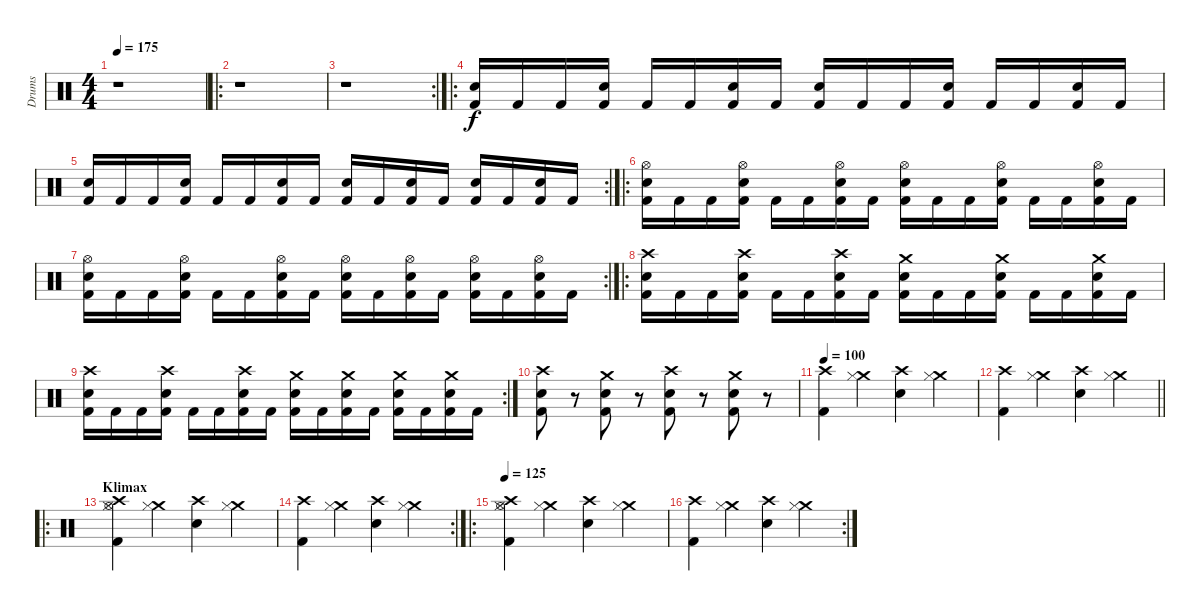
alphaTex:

\track ("Drums" "Drums") {instrument percussion}
\staff {score}
\articulation defaults
\ts (4 4)
\tempo 175
\clef neutral
\ks c
r.1{dy f} |
\ro
r.1 |
\rc 2
r.1 |
\ro
("Snare (hit) 2" "Kick (hit) 2").16 "Kick (hit) 2".16 "Kick (hit) 2".16 ("Snare (hit) 2" "Kick (hit) 2").16 "Kick (hit) 2".16 "Kick (hit) 2".16 ("Snare (hit) 2" "Kick (hit) 2").16 "Kick (hit) 2".16 ("Snare (hit) 2" "Kick (hit) 2").16 "Kick (hit) 2".16 "Kick (hit) 2".16 ("Snare (hit) 2" "Kick (hit) 2").16 "Kick (hit) 2".16 "Kick (hit) 2".16 ("Snare (hit) 2" "Kick (hit) 2").16 "Kick (hit) 2".16 |
\rc 2
("Snare (hit) 2" "Kick (hit) 2").16 "Kick (hit) 2".16 "Kick (hit) 2".16 ("Snare (hit) 2" "Kick (hit) 2").16 "Kick (hit) 2".16 "Kick (hit) 2".16 ("Snare (hit) 2" "Kick (hit) 2").16 "Kick (hit) 2".16 ("Snare (hit) 2" "Kick (hit) 2").16 "Kick (hit) 2".16 ("Snare (hit) 2" "Kick (hit) 2").16 "Kick (hit) 2".16 ("Snare (hit) 2" "Kick (hit) 2").16 "Kick (hit) 2".16 ("Snare (hit) 2" "Kick (hit) 2").16 "Kick (hit) 2".16 |
\ro
("Hi-Hat (open)" "Snare (hit) 2" "Kick (hit) 2").16 "Kick (hit) 2".16 "Kick (hit) 2".16 ("Hi-Hat (open)" "Snare (hit) 2" "Kick (hit) 2").16 "Kick (hit) 2".16 "Kick (hit) 2".16 ("Hi-Hat (open)" "Snare (hit) 2" "Kick (hit) 2").16 "Kick (hit) 2".16 ("Hi-Hat (open)" "Snare (hit) 2" "Kick (hit) 2").16 "Kick (hit) 2".16 "Kick (hit) 2".16 ("Hi-Hat (open)" "Snare (hit) 2" "Kick (hit) 2").16 "Kick (hit) 2".16 "Kick (hit) 2".16 ("Hi-Hat (open)" "Snare (hit) 2" "Kick (hit) 2").16 "Kick (hit) 2".16 |
\rc 2
("Hi-Hat (open)" "Snare (hit) 2" "Kick (hit) 2").16 "Kick (hit) 2".16 "Kick (hit) 2".16 ("Hi-Hat (open)" "Snare (hit) 2" "Kick (hit) 2").16 "Kick (hit) 2".16 "Kick (hit) 2".16 ("Hi-Hat (open)" "Snare (hit) 2" "Kick (hit) 2").16 "Kick (hit) 2".16 ("Hi-Hat (open)" "Snare (hit) 2" "Kick (hit) 2").16 "Kick (hit) 2".16 ("Hi-Hat (open)" "Snare (hit) 2" "Kick (hit) 2").16 "Kick (hit) 2".16 ("Hi-Hat (open)" "Snare (hit) 2" "Kick (hit) 2").16 "Kick (hit) 2".16 ("Hi-Hat (open)" "Snare (hit) 2" "Kick (hit) 2").16 "Kick (hit) 2".16 |
\ro
("Crash high (hit)" "Snare (hit) 2" "Kick (hit) 2").16 "Kick (hit) 2".16 "Kick (hit) 2".16 ("Crash high (hit)" "Snare (hit) 2" "Kick (hit) 2").16 "Kick (hit) 2".16 "Kick (hit) 2".16 ("Crash high (hit)" "Snare (hit) 2" "Kick (hit) 2").16 "Kick (hit) 2".16 ("Crash medium (hit)" "Snare (hit) 2" "Kick (hit) 2").16 "Kick (hit) 2".16 "Kick (hit) 2".16 ("Crash medium (hit)" "Snare (hit) 2" "Kick (hit) 2").16 "Kick (hit) 2".16 "Kick (hit) 2".16 ("Crash medium (hit)" "Snare (hit) 2" "Kick (hit) 2").16 "Kick (hit) 2".16 |
\rc 2
("Crash high (hit)" "Snare (hit) 2" "Kick (hit) 2").16 "Kick (hit) 2".16 "Kick (hit) 2".16 ("Crash high (hit)" "Snare (hit) 2" "Kick (hit) 2").16 "Kick (hit) 2".16 "Kick (hit) 2".16 ("Crash high (hit)" "Snare (hit) 2" "Kick (hit) 2").16 "Kick (hit) 2".16 ("Crash medium (hit)" "Snare (hit) 2" "Kick (hit) 2").16 "Kick (hit) 2".16 ("Crash medium (hit)" "Snare (hit) 2" "Kick (hit) 2").16 "Kick (hit) 2".16 ("Crash medium (hit)" "Snare (hit) 2" "Kick (hit) 2").16 "Kick (hit) 2".16 ("Crash medium (hit)" "Snare (hit) 2" "Kick (hit) 2").16 "Kick (hit) 2".16 |
("Crash high (hit)" "Snare (hit) 2" "Kick (hit) 2").8 r.8 ("Crash medium (hit)" "Snare (hit) 2" "Kick (hit) 2").8 r.8 ("Crash high (hit)" "Snare (hit) 2" "Kick (hit) 2").8 r.8 ("Crash medium (hit)" "Snare (hit) 2" "Kick (hit) 2").8 r.8 |
\tempo 100
("Crash high (hit)" "Kick (hit) 2").4 ("Crash medium (hit)" "Hi-Hat (closed)").4 ("Crash high (hit)" "Snare (hit) 2").4 ("Crash medium (hit)" "Hi-Hat (closed)").4 |
\barLineRight lightlight
("Crash high (hit)" "Kick (hit) 2").4 ("Crash medium (hit)" "Hi-Hat (closed)").4 ("Crash high (hit)" "Snare (hit) 2").4 ("Crash medium (hit)" "Hi-Hat (closed)").4 |
\ro
\section ("" "Klimax")
("Crash high (hit)" "Hi-Hat (closed)" "Hi-Hat (open)" "Kick (hit) 2").4 ("Crash medium (hit)" "Hi-Hat (closed)").4 ("Crash high (hit)" "Snare (hit) 2").4 ("Crash medium (hit)" "Hi-Hat (closed)").4 |
\rc 2
("Crash high (hit)" "Kick (hit) 2").4 ("Crash medium (hit)" "Hi-Hat (closed)").4 ("Crash high (hit)" "Snare (hit) 2").4 ("Crash medium (hit)" "Hi-Hat (closed)").4 |
\ro
\tempo 125
("Crash high (hit)" "Hi-Hat (closed)" "Hi-Hat (open)" "Kick (hit) 2").4 ("Crash medium (hit)" "Hi-Hat (closed)").4 ("Crash high (hit)" "Snare (hit) 2").4 ("Crash medium (hit)" "Hi-Hat (closed)").4 |
\rc 2
("Crash high (hit)" "Kick (hit) 2").4 ("Crash medium (hit)" "Hi-Hat (closed)").4 ("Crash high (hit)" "Snare (hit) 2").4 ("Crash medium (hit)" "Hi-Hat (closed)").4
